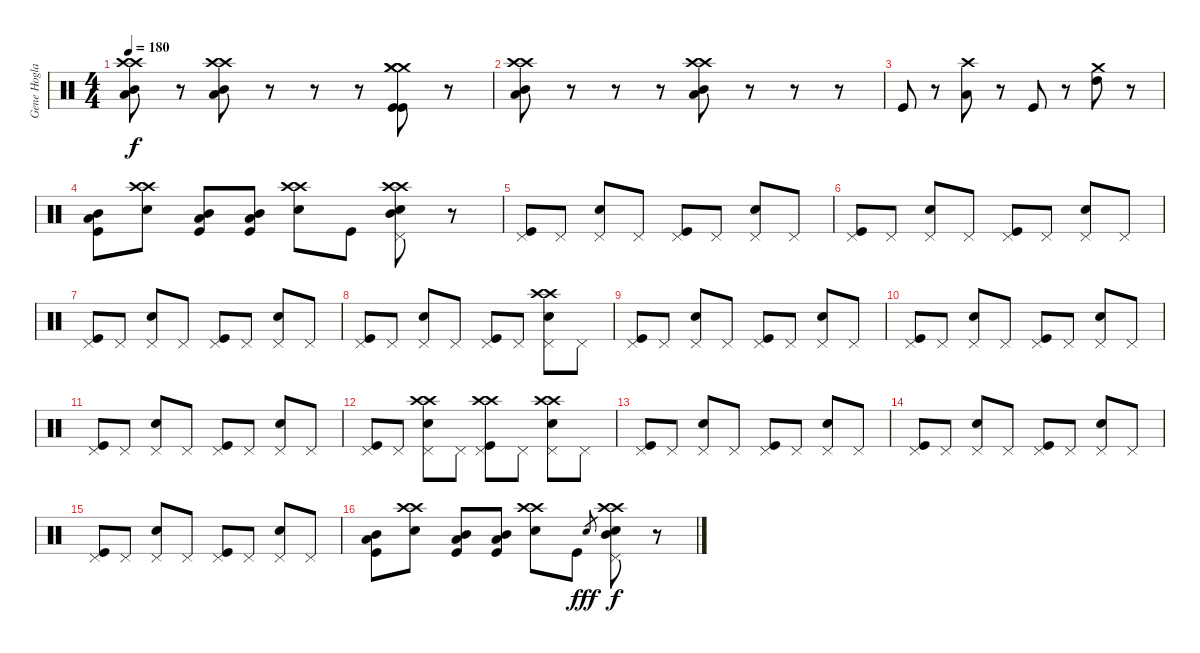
\track ("Gene Hoglan" "Gene Hogla") {instrument percussion}
\staff {score}
\articulation defaults
\ts (4 4)
\tempo 180
\clef neutral
\ks c
("Crash high (hit)" "Crash high (hit)" "Low Tom (hit)" "Mid Tom (hit)").8{dy f} r.8 ("Crash high (hit)" "Crash high (hit)" "Low Tom (hit)" "Mid Tom (hit)").8 r.8 r.8 r.8 ("Crash medium (hit)" "Crash medium (hit)" "Crash medium (hit)" "Kick (hit)" "Kick (hit)").8 r.8 |
("Crash high (hit)" "Crash high (hit)" "Low Tom (hit)" "Mid Tom (hit)").8 r.8 r.8 r.8 ("Crash high (hit)" "Crash high (hit)" "Mid Tom (hit)" "Low Tom (hit)").8 r.8 r.8 r.8 |
"Kick (hit)".8 r.8 ("Crash high (hit)" "Low Tom (hit)").8 r.8 "Kick (hit)".8 r.8 ("Crash medium (hit)" "High Tom (hit)").8 r.8 |
("Low Tom (hit)" "Mid Tom (hit)" "Kick (hit)").8 ("Crash high (hit)" "Crash high (hit)" "Snare (hit) 2").8 ("Low Tom (hit)" "Mid Tom (hit)" "Kick (hit)").8 ("Mid Tom (hit)" "Low Tom (hit)" "Kick (hit)").8 ("Crash high (hit)" "Crash high (hit)" "Snare (hit) 2").8 "Kick (hit)".8 ("Crash high (hit)" "Crash high (hit)" "Pedal Hi-Hat (hit)" "Snare (hit) 2" "Mid Tom (hit)").8 r.8 |
("Pedal Hi-Hat (hit)" "Kick (hit)").8 "Pedal Hi-Hat (hit)".8 ("Pedal Hi-Hat (hit)" "Snare (hit) 2").8 "Pedal Hi-Hat (hit)".8 ("Pedal Hi-Hat (hit)" "Kick (hit)").8 "Pedal Hi-Hat (hit)".8 ("Pedal Hi-Hat (hit)" "Snare (hit) 2").8 "Pedal Hi-Hat (hit)".8 |
("Pedal Hi-Hat (hit)" "Kick (hit)").8 "Pedal Hi-Hat (hit)".8 ("Pedal Hi-Hat (hit)" "Snare (hit) 2").8 "Pedal Hi-Hat (hit)".8 ("Pedal Hi-Hat (hit)" "Kick (hit)").8 "Pedal Hi-Hat (hit)".8 ("Pedal Hi-Hat (hit)" "Snare (hit) 2").8 "Pedal Hi-Hat (hit)".8 |
("Pedal Hi-Hat (hit)" "Kick (hit)").8 "Pedal Hi-Hat (hit)".8 ("Pedal Hi-Hat (hit)" "Snare (hit) 2").8 "Pedal Hi-Hat (hit)".8 ("Pedal Hi-Hat (hit)" "Kick (hit)").8 "Pedal Hi-Hat (hit)".8 ("Pedal Hi-Hat (hit)" "Snare (hit) 2").8 "Pedal Hi-Hat (hit)".8 |
("Pedal Hi-Hat (hit)" "Kick (hit)").8 "Pedal Hi-Hat (hit)".8 ("Pedal Hi-Hat (hit)" "Snare (hit) 2").8 "Pedal Hi-Hat (hit)".8 ("Pedal Hi-Hat (hit)" "Kick (hit)").8 "Pedal Hi-Hat (hit)".8 ("Crash high (hit)" "Crash high (hit)" "Pedal Hi-Hat (hit)" "Snare (hit) 2").8 "Pedal Hi-Hat (hit)".8 |
("Pedal Hi-Hat (hit)" "Kick (hit)").8 "Pedal Hi-Hat (hit)".8 ("Pedal Hi-Hat (hit)" "Snare (hit) 2").8 "Pedal Hi-Hat (hit)".8 ("Pedal Hi-Hat (hit)" "Kick (hit)").8 "Pedal Hi-Hat (hit)".8 ("Pedal Hi-Hat (hit)" "Snare (hit) 2").8 "Pedal Hi-Hat (hit)".8 |
("Pedal Hi-Hat (hit)" "Kick (hit)").8 "Pedal Hi-Hat (hit)".8 ("Pedal Hi-Hat (hit)" "Snare (hit) 2").8 "Pedal Hi-Hat (hit)".8 ("Pedal Hi-Hat (hit)" "Kick (hit)").8 "Pedal Hi-Hat (hit)".8 ("Pedal Hi-Hat (hit)" "Snare (hit) 2").8 "Pedal Hi-Hat (hit)".8 |
("Pedal Hi-Hat (hit)" "Kick (hit)").8 "Pedal Hi-Hat (hit)".8 ("Pedal Hi-Hat (hit)" "Snare (hit) 2").8 "Pedal Hi-Hat (hit)".8 ("Pedal Hi-Hat (hit)" "Kick (hit)").8 "Pedal Hi-Hat (hit)".8 ("Pedal Hi-Hat (hit)" "Snare (hit) 2").8 "Pedal Hi-Hat (hit)".8 |
("Pedal Hi-Hat (hit)" "Kick (hit)").8 "Pedal Hi-Hat (hit)".8 ("Crash high (hit)" "Crash high (hit)" "Pedal Hi-Hat (hit)" "Snare (hit) 2").8 "Pedal Hi-Hat (hit)".8 ("Crash high (hit)" "Crash high (hit)" "Pedal Hi-Hat (hit)" "Kick (hit)").8 "Pedal Hi-Hat (hit)".8 ("Crash high (hit)" "Crash high (hit)" "Pedal Hi-Hat (hit)" "Snare (hit) 2").8 "Pedal Hi-Hat (hit)".8 |
("Pedal Hi-Hat (hit)" "Kick (hit)").8 "Pedal Hi-Hat (hit)".8 ("Pedal Hi-Hat (hit)" "Snare (hit) 2").8 "Pedal Hi-Hat (hit)".8 ("Pedal Hi-Hat (hit)" "Kick (hit)").8 "Pedal Hi-Hat (hit)".8 ("Pedal Hi-Hat (hit)" "Snare (hit) 2").8 "Pedal Hi-Hat (hit)".8 |
("Pedal Hi-Hat (hit)" "Kick (hit)").8 "Pedal Hi-Hat (hit)".8 ("Pedal Hi-Hat (hit)" "Snare (hit) 2").8 "Pedal Hi-Hat (hit)".8 ("Pedal Hi-Hat (hit)" "Kick (hit)").8 "Pedal Hi-Hat (hit)".8 ("Pedal Hi-Hat (hit)" "Snare (hit) 2").8 "Pedal Hi-Hat (hit)".8 |
("Pedal Hi-Hat (hit)" "Kick (hit)").8 "Pedal Hi-Hat (hit)".8 ("Pedal Hi-Hat (hit)" "Snare (hit) 2").8 "Pedal Hi-Hat (hit)".8 ("Pedal Hi-Hat (hit)" "Kick (hit)").8 "Pedal Hi-Hat (hit)".8 ("Pedal Hi-Hat (hit)" "Snare (hit) 2").8 "Pedal Hi-Hat (hit)".8 |
("Low Tom (hit)" "Mid Tom (hit)" "Kick (hit)").8 ("Crash high (hit)" "Crash high (hit)" "Snare (hit) 2").8 ("Low Tom (hit)" "Mid Tom (hit)" "Kick (hit)").8 ("Mid Tom (hit)" "Low Tom (hit)" "Kick (hit)").8 ("Crash high (hit)" "Crash high (hit)" "Snare (hit) 2").8 "Kick (hit)".8 "Snare (hit) 2".8{gr dy fff} ("Crash high (hit)" "Crash high (hit)" "Pedal Hi-Hat (hit)" "Snare (hit) 2" "Mid Tom (hit)").8{dy f} r.8
